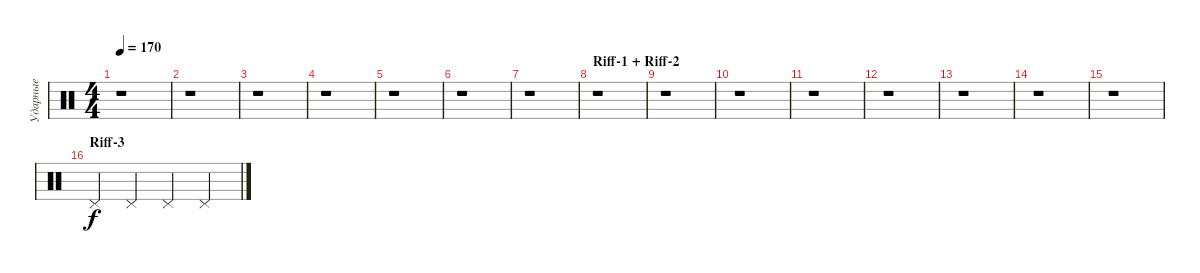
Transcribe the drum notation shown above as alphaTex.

\track ("Ударные" "Ударные") {instrument percussion}
\staff {score}
\articulation defaults
\ts (4 4)
\tempo 170
\clef neutral
\ks c
r.1{dy f} |
r.1 |
r.1 |
r.1 |
r.1 |
r.1 |
r.1 |
\section ("" "Riff-1 + Riff-2")
r.1 |
r.1 |
r.1 |
r.1 |
r.1 |
r.1 |
r.1 |
r.1 |
\section ("" "Riff-3")
"Pedal Hi-Hat (hit)".4 "Pedal Hi-Hat (hit)".4 "Pedal Hi-Hat (hit)".4 "Pedal Hi-Hat (hit)".4
